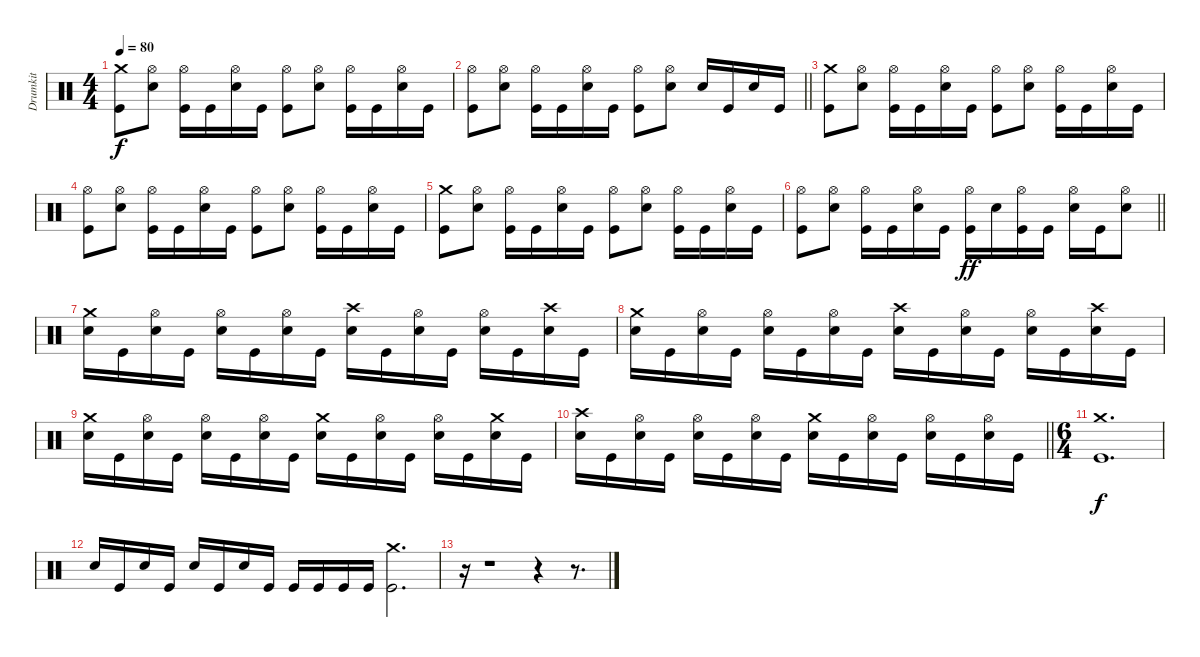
\track ("Drumkit" "Drumkit") {instrument percussion}
\staff {score}
\articulation defaults
\ts (4 4)
\tempo 80
\clef neutral
\ks c
("Crash medium (hit)" "Kick (hit)").8{dy f} ("Hi-Hat (open)" "Snare (hit) 2").8 ("Hi-Hat (open)" "Kick (hit)").16 "Kick (hit)".16 ("Hi-Hat (open)" "Snare (hit) 2").16 "Kick (hit)".16 ("Hi-Hat (open)" "Kick (hit)").8 ("Hi-Hat (open)" "Snare (hit) 2").8 ("Hi-Hat (open)" "Kick (hit)").16 "Kick (hit)".16 ("Hi-Hat (open)" "Snare (hit) 2").16 "Kick (hit)".16 |
\barLineRight lightlight
("Hi-Hat (open)" "Kick (hit)").8 ("Hi-Hat (open)" "Snare (hit) 2").8 ("Hi-Hat (open)" "Kick (hit)").16 "Kick (hit)".16 ("Hi-Hat (open)" "Snare (hit) 2").16 "Kick (hit)".16 ("Hi-Hat (open)" "Kick (hit)").8 ("Hi-Hat (open)" "Snare (hit) 2").8 "Snare (hit) 2".16 "Kick (hit)".16 "Snare (hit) 2".16 "Kick (hit)".16 |
("Crash medium (hit)" "Kick (hit)").8 ("Hi-Hat (open)" "Snare (hit) 2").8 ("Hi-Hat (open)" "Kick (hit)").16 "Kick (hit)".16 ("Hi-Hat (open)" "Snare (hit) 2").16 "Kick (hit)".16 ("Hi-Hat (open)" "Kick (hit)").8 ("Hi-Hat (open)" "Snare (hit) 2").8 ("Hi-Hat (open)" "Kick (hit)").16 "Kick (hit)".16 ("Hi-Hat (open)" "Snare (hit) 2").16 "Kick (hit)".16 |
("Hi-Hat (open)" "Kick (hit)").8 ("Hi-Hat (open)" "Snare (hit) 2").8 ("Hi-Hat (open)" "Kick (hit)").16 "Kick (hit)".16 ("Hi-Hat (open)" "Snare (hit) 2").16 "Kick (hit)".16 ("Hi-Hat (open)" "Kick (hit)").8 ("Hi-Hat (open)" "Snare (hit) 2").8 ("Hi-Hat (open)" "Kick (hit)").16 "Kick (hit)".16 ("Hi-Hat (open)" "Snare (hit) 2").16 "Kick (hit)".16 |
("Crash medium (hit)" "Kick (hit)").8 ("Hi-Hat (open)" "Snare (hit) 2").8 ("Hi-Hat (open)" "Kick (hit)").16 "Kick (hit)".16 ("Hi-Hat (open)" "Snare (hit) 2").16 "Kick (hit)".16 ("Hi-Hat (open)" "Kick (hit)").8 ("Hi-Hat (open)" "Snare (hit) 2").8 ("Hi-Hat (open)" "Kick (hit)").16 "Kick (hit)".16 ("Hi-Hat (open)" "Snare (hit) 2").16 "Kick (hit)".16 |
\barLineRight lightlight
("Hi-Hat (open)" "Kick (hit)").8 ("Hi-Hat (open)" "Snare (hit) 2").8 ("Hi-Hat (open)" "Kick (hit)").16 "Kick (hit)".16 ("Hi-Hat (open)" "Snare (hit) 2").16 "Kick (hit)".16 ("Hi-Hat (open)" "Kick (hit)").16{dy ff} "Snare (hit) 2".16 ("Hi-Hat (open)" "Kick (hit)").16 "Kick (hit)".16 ("Hi-Hat (open)" "Snare (hit) 2").16 "Kick (hit)".16 ("Hi-Hat (open)" "Snare (hit) 2").8 |
("Crash medium (hit)" "Snare (hit) 2").16 "Kick (hit)".16 ("Hi-Hat (open)" "Snare (hit) 2").16 "Kick (hit)".16 ("Hi-Hat (open)" "Snare (hit) 2").16 "Kick (hit)".16 ("Hi-Hat (open)" "Snare (hit) 2").16 "Kick (hit)".16 ("Crash high (hit)" "Snare (hit) 2").16 "Kick (hit)".16 ("Hi-Hat (open)" "Snare (hit) 2").16 "Kick (hit)".16 ("Hi-Hat (open)" "Snare (hit) 2").16 "Kick (hit)".16 ("Crash high (hit)" "Snare (hit) 2").16 "Kick (hit)".16 |
("Crash medium (hit)" "Snare (hit) 2").16 "Kick (hit)".16 ("Hi-Hat (open)" "Snare (hit) 2").16 "Kick (hit)".16 ("Hi-Hat (open)" "Snare (hit) 2").16 "Kick (hit)".16 ("Hi-Hat (open)" "Snare (hit) 2").16 "Kick (hit)".16 ("Crash high (hit)" "Snare (hit) 2").16 "Kick (hit)".16 ("Hi-Hat (open)" "Snare (hit) 2").16 "Kick (hit)".16 ("Hi-Hat (open)" "Snare (hit) 2").16 "Kick (hit)".16 ("Crash high (hit)" "Snare (hit) 2").16 "Kick (hit)".16 |
("Crash medium (hit)" "Snare (hit) 2").16 "Kick (hit)".16 ("Hi-Hat (open)" "Snare (hit) 2").16 "Kick (hit)".16 ("Hi-Hat (open)" "Snare (hit) 2").16 "Kick (hit)".16 ("Hi-Hat (open)" "Snare (hit) 2").16 "Kick (hit)".16 ("Crash medium (hit)" "Snare (hit) 2").16 "Kick (hit)".16 ("Hi-Hat (open)" "Snare (hit) 2").16 "Kick (hit)".16 ("Hi-Hat (open)" "Snare (hit) 2").16 "Kick (hit)".16 ("Crash medium (hit)" "Snare (hit) 2").16 "Kick (hit)".16 |
\barLineRight lightlight
("Crash high (hit)" "Snare (hit) 2").16 "Kick (hit)".16 ("Hi-Hat (open)" "Snare (hit) 2").16 "Kick (hit)".16 ("Hi-Hat (open)" "Snare (hit) 2").16 "Kick (hit)".16 ("Hi-Hat (open)" "Snare (hit) 2").16 "Kick (hit)".16 ("Crash medium (hit)" "Snare (hit) 2").16 "Kick (hit)".16 ("Hi-Hat (open)" "Snare (hit) 2").16 "Kick (hit)".16 ("Hi-Hat (open)" "Snare (hit) 2").16 "Kick (hit)".16 ("Hi-Hat (open)" "Snare (hit) 2").16 "Kick (hit)".16 |
\ts (6 4)
("Crash medium (hit)" "Kick (hit)").1{d dy f} |
"Snare (hit) 2".16 "Kick (hit)".16 "Snare (hit) 2".16 "Kick (hit)".16 "Snare (hit) 2".16 "Kick (hit)".16 "Snare (hit) 2".16 "Kick (hit)".16 "Kick (hit)".16 "Kick (hit)".16 "Kick (hit)".16 "Kick (hit)".16 ("Crash medium (hit)" "Kick (hit)").2{d} |
r.16 r.1 r.4 r.8{d}
